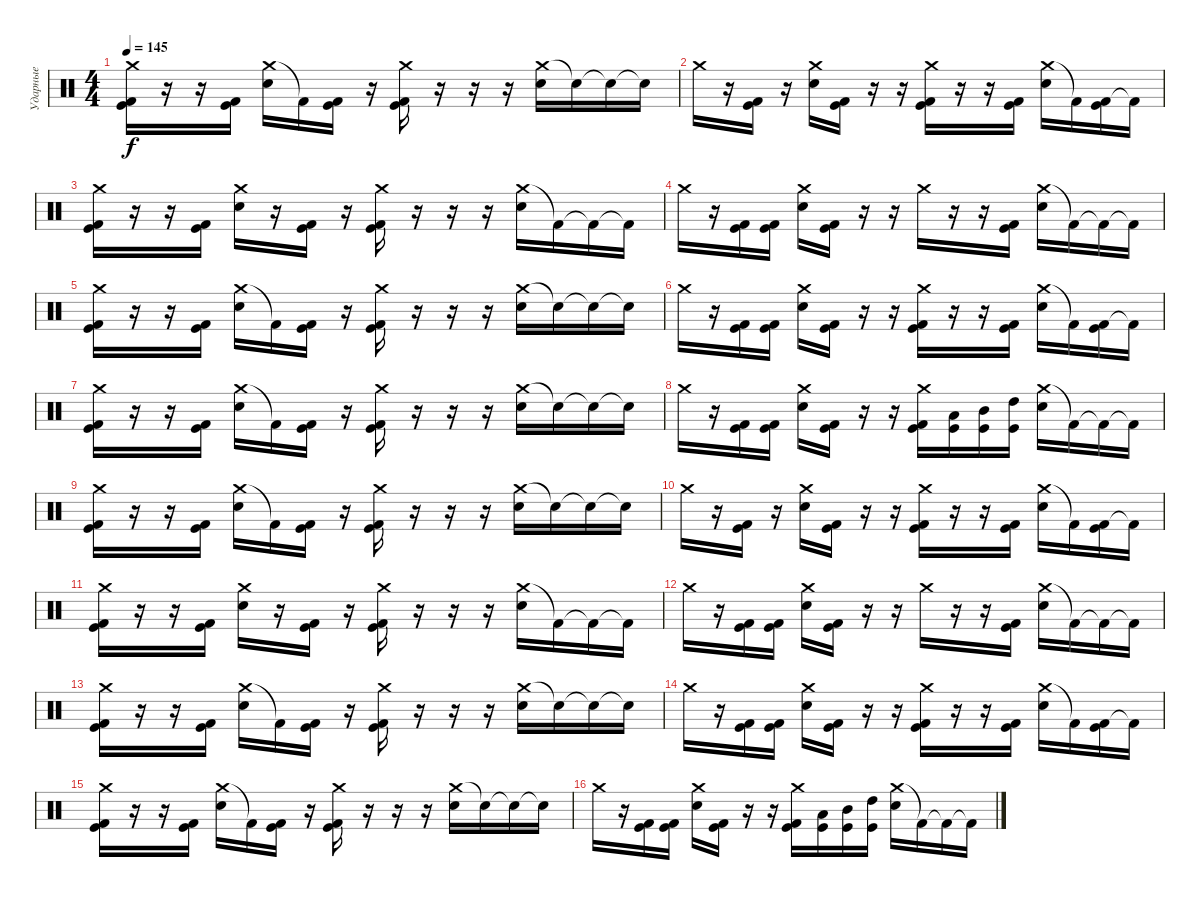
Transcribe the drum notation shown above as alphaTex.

\track ("Ударные" "Ударные") {instrument percussion}
\staff {score}
\articulation defaults
\ts (4 4)
\tempo 145
\clef neutral
\ks c
("Crash medium (hit)" "Kick (hit) 2" "Kick (hit)").16{dy f} r.16 r.16 ("Kick (hit) 2" "Kick (hit)").16 ("Crash medium (hit)" "Electric Snare (hit)").16 "Kick (hit) 2"{t}.16 ("Kick (hit) 2" "Kick (hit)").16 r.16 ("Crash medium (hit)" "Kick (hit) 2" "Kick (hit)").16 r.16 r.16 r.16 ("Crash medium (hit)" "Electric Snare (hit)").16 "Snare (hit)"{t}.16 "Snare (hit)"{t}.16 "Snare (hit)"{t}.16 |
"Crash medium (hit)".16 r.16 ("Kick (hit) 2" "Kick (hit)").16 r.16 ("Crash medium (hit)" "Electric Snare (hit)").16 ("Kick (hit) 2" "Kick (hit)").16 r.16 r.16 ("Crash medium (hit)" "Kick (hit) 2" "Kick (hit)").16 r.16 r.16 ("Kick (hit) 2" "Kick (hit)").16 ("Crash medium (hit)" "Electric Snare (hit)").16 "Kick (hit) 2"{t}.16 ("Kick (hit) 2" "Kick (hit)").16 "Kick (hit) 2"{t}.16 |
("Crash medium (hit)" "Kick (hit) 2" "Kick (hit)").16 r.16 r.16 ("Kick (hit) 2" "Kick (hit)").16 ("Crash medium (hit)" "Electric Snare (hit)").16 r.16 ("Kick (hit) 2" "Kick (hit)").16 r.16 ("Crash medium (hit)" "Kick (hit) 2" "Kick (hit)").16 r.16 r.16 r.16 ("Crash medium (hit)" "Electric Snare (hit)").16 "Kick (hit) 2"{t}.16 "Kick (hit) 2"{t}.16 "Kick (hit) 2"{t}.16 |
"Crash medium (hit)".16 r.16 ("Kick (hit) 2" "Kick (hit)").16 ("Kick (hit) 2" "Kick (hit)").16 ("Crash medium (hit)" "Electric Snare (hit)").16 ("Kick (hit) 2" "Kick (hit)").16 r.16 r.16 "Crash medium (hit)".16 r.16 r.16 ("Kick (hit) 2" "Kick (hit)").16 ("Crash medium (hit)" "Electric Snare (hit)").16 "Kick (hit) 2"{t}.16 "Kick (hit) 2"{t}.16 "Kick (hit) 2"{t}.16 |
("Crash medium (hit)" "Kick (hit) 2" "Kick (hit)").16 r.16 r.16 ("Kick (hit) 2" "Kick (hit)").16 ("Crash medium (hit)" "Electric Snare (hit)").16 "Kick (hit) 2"{t}.16 ("Kick (hit) 2" "Kick (hit)").16 r.16 ("Crash medium (hit)" "Kick (hit) 2" "Kick (hit)").16 r.16 r.16 r.16 ("Crash medium (hit)" "Electric Snare (hit)").16 "Snare (hit)"{t}.16 "Snare (hit)"{t}.16 "Snare (hit)"{t}.16 |
"Crash medium (hit)".16 r.16 ("Kick (hit) 2" "Kick (hit)").16 ("Kick (hit) 2" "Kick (hit)").16 ("Crash medium (hit)" "Electric Snare (hit)").16 ("Kick (hit) 2" "Kick (hit)").16 r.16 r.16 ("Crash medium (hit)" "Kick (hit) 2" "Kick (hit)").16 r.16 r.16 ("Kick (hit) 2" "Kick (hit)").16 ("Crash medium (hit)" "Electric Snare (hit)").16 "Kick (hit) 2"{t}.16 ("Kick (hit) 2" "Kick (hit)").16 "Kick (hit) 2"{t}.16 |
("Crash medium (hit)" "Kick (hit) 2" "Kick (hit)").16 r.16 r.16 ("Kick (hit) 2" "Kick (hit)").16 ("Crash medium (hit)" "Electric Snare (hit)").16 "Kick (hit) 2"{t}.16 ("Kick (hit) 2" "Kick (hit)").16 r.16 ("Crash medium (hit)" "Kick (hit) 2" "Kick (hit)").16 r.16 r.16 r.16 ("Crash medium (hit)" "Electric Snare (hit)").16 "Snare (hit)"{t}.16 "Snare (hit)"{t}.16 "Snare (hit)"{t}.16 |
"Crash medium (hit)".16 r.16 ("Kick (hit) 2" "Kick (hit)").16 ("Kick (hit) 2" "Kick (hit)").16 ("Crash medium (hit)" "Electric Snare (hit)").16 ("Kick (hit) 2" "Kick (hit)").16 r.16 r.16 ("Crash medium (hit)" "Kick (hit) 2" "Kick (hit)").16 ("Low Tom (hit)" "Kick (hit)").16 ("Mid Tom (hit)" "Kick (hit)").16 ("High Tom (hit)" "Kick (hit)").16 ("Crash medium (hit)" "Electric Snare (hit)").16 "Kick (hit) 2"{t}.16 "Kick (hit) 2"{t}.16 "Kick (hit) 2"{t}.16 |
("Crash medium (hit)" "Kick (hit) 2" "Kick (hit)").16 r.16 r.16 ("Kick (hit) 2" "Kick (hit)").16 ("Crash medium (hit)" "Electric Snare (hit)").16 "Kick (hit) 2"{t}.16 ("Kick (hit) 2" "Kick (hit)").16 r.16 ("Crash medium (hit)" "Kick (hit) 2" "Kick (hit)").16 r.16 r.16 r.16 ("Crash medium (hit)" "Electric Snare (hit)").16 "Snare (hit)"{t}.16 "Snare (hit)"{t}.16 "Snare (hit)"{t}.16 |
"Crash medium (hit)".16 r.16 ("Kick (hit) 2" "Kick (hit)").16 r.16 ("Crash medium (hit)" "Electric Snare (hit)").16 ("Kick (hit) 2" "Kick (hit)").16 r.16 r.16 ("Crash medium (hit)" "Kick (hit) 2" "Kick (hit)").16 r.16 r.16 ("Kick (hit) 2" "Kick (hit)").16 ("Crash medium (hit)" "Electric Snare (hit)").16 "Kick (hit) 2"{t}.16 ("Kick (hit) 2" "Kick (hit)").16 "Kick (hit) 2"{t}.16 |
("Crash medium (hit)" "Kick (hit) 2" "Kick (hit)").16 r.16 r.16 ("Kick (hit) 2" "Kick (hit)").16 ("Crash medium (hit)" "Electric Snare (hit)").16 r.16 ("Kick (hit) 2" "Kick (hit)").16 r.16 ("Crash medium (hit)" "Kick (hit) 2" "Kick (hit)").16 r.16 r.16 r.16 ("Crash medium (hit)" "Electric Snare (hit)").16 "Kick (hit) 2"{t}.16 "Kick (hit) 2"{t}.16 "Kick (hit) 2"{t}.16 |
"Crash medium (hit)".16 r.16 ("Kick (hit) 2" "Kick (hit)").16 ("Kick (hit) 2" "Kick (hit)").16 ("Crash medium (hit)" "Electric Snare (hit)").16 ("Kick (hit) 2" "Kick (hit)").16 r.16 r.16 "Crash medium (hit)".16 r.16 r.16 ("Kick (hit) 2" "Kick (hit)").16 ("Crash medium (hit)" "Electric Snare (hit)").16 "Kick (hit) 2"{t}.16 "Kick (hit) 2"{t}.16 "Kick (hit) 2"{t}.16 |
("Crash medium (hit)" "Kick (hit) 2" "Kick (hit)").16 r.16 r.16 ("Kick (hit) 2" "Kick (hit)").16 ("Crash medium (hit)" "Electric Snare (hit)").16 "Kick (hit) 2"{t}.16 ("Kick (hit) 2" "Kick (hit)").16 r.16 ("Crash medium (hit)" "Kick (hit) 2" "Kick (hit)").16 r.16 r.16 r.16 ("Crash medium (hit)" "Electric Snare (hit)").16 "Snare (hit)"{t}.16 "Snare (hit)"{t}.16 "Snare (hit)"{t}.16 |
"Crash medium (hit)".16 r.16 ("Kick (hit) 2" "Kick (hit)").16 ("Kick (hit) 2" "Kick (hit)").16 ("Crash medium (hit)" "Electric Snare (hit)").16 ("Kick (hit) 2" "Kick (hit)").16 r.16 r.16 ("Crash medium (hit)" "Kick (hit) 2" "Kick (hit)").16 r.16 r.16 ("Kick (hit) 2" "Kick (hit)").16 ("Crash medium (hit)" "Electric Snare (hit)").16 "Kick (hit) 2"{t}.16 ("Kick (hit) 2" "Kick (hit)").16 "Kick (hit) 2"{t}.16 |
("Crash medium (hit)" "Kick (hit) 2" "Kick (hit)").16 r.16 r.16 ("Kick (hit) 2" "Kick (hit)").16 ("Crash medium (hit)" "Electric Snare (hit)").16 "Kick (hit) 2"{t}.16 ("Kick (hit) 2" "Kick (hit)").16 r.16 ("Crash medium (hit)" "Kick (hit) 2" "Kick (hit)").16 r.16 r.16 r.16 ("Crash medium (hit)" "Electric Snare (hit)").16 "Snare (hit)"{t}.16 "Snare (hit)"{t}.16 "Snare (hit)"{t}.16 |
"Crash medium (hit)".16 r.16 ("Kick (hit) 2" "Kick (hit)").16 ("Kick (hit) 2" "Kick (hit)").16 ("Crash medium (hit)" "Electric Snare (hit)").16 ("Kick (hit) 2" "Kick (hit)").16 r.16 r.16 ("Crash medium (hit)" "Kick (hit) 2" "Kick (hit)").16 ("Low Tom (hit)" "Kick (hit)").16 ("Mid Tom (hit)" "Kick (hit)").16 ("High Tom (hit)" "Kick (hit)").16 ("Crash medium (hit)" "Electric Snare (hit)").16 "Kick (hit) 2"{t}.16 "Kick (hit) 2"{t}.16 "Kick (hit) 2"{t}.16
